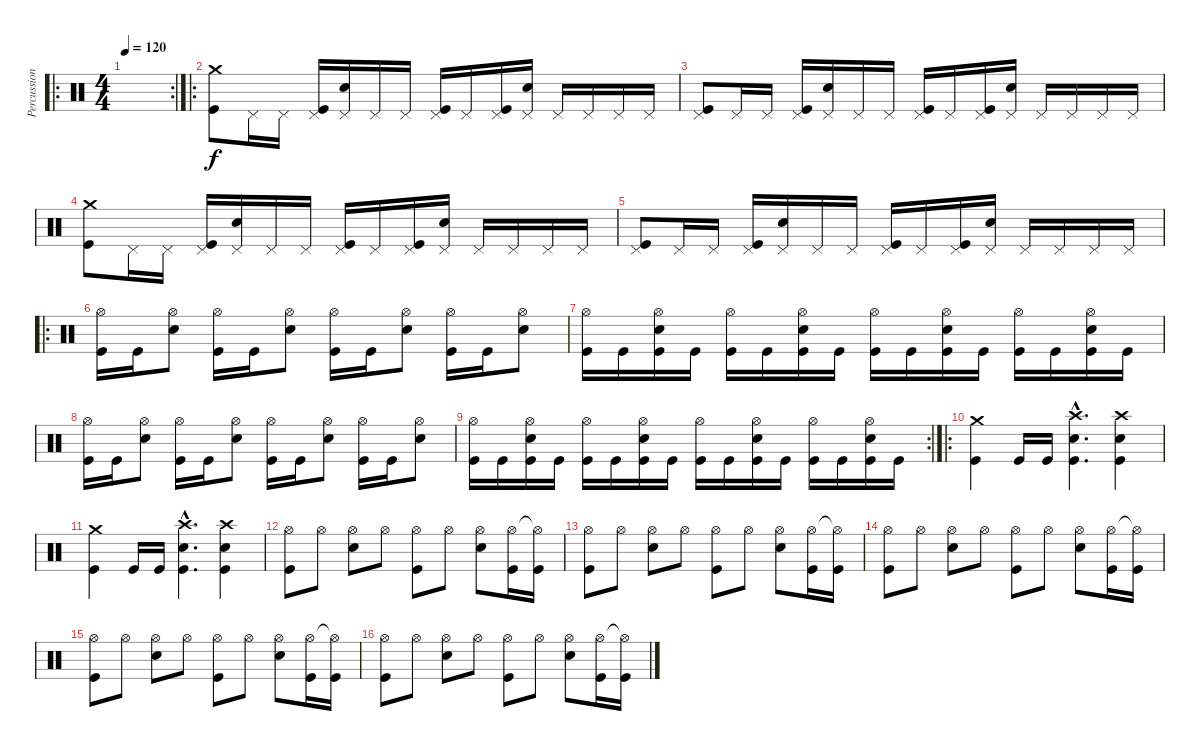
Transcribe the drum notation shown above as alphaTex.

\track ("Percussion" "Percussion") {instrument percussion}
\staff {score}
\articulation defaults
\ro
\rc 2
\ts (4 4)
\tempo 120
\clef neutral
\ks c
|
\ro
("Crash medium (hit)" "Kick (hit)").8 "Pedal Hi-Hat (hit)".16 "Pedal Hi-Hat (hit)".16 ("Pedal Hi-Hat (hit)" "Kick (hit)").16 ("Pedal Hi-Hat (hit)" "Snare (hit) 2").16 "Pedal Hi-Hat (hit)".16 "Pedal Hi-Hat (hit)".16 ("Pedal Hi-Hat (hit)" "Kick (hit)").16 "Pedal Hi-Hat (hit)".16 ("Pedal Hi-Hat (hit)" "Kick (hit)").16 ("Pedal Hi-Hat (hit)" "Snare (hit) 2").16 "Pedal Hi-Hat (hit)".16 "Pedal Hi-Hat (hit)".16 "Pedal Hi-Hat (hit)".16 "Pedal Hi-Hat (hit)".16 |
("Pedal Hi-Hat (hit)" "Kick (hit)").8 "Pedal Hi-Hat (hit)".16 "Pedal Hi-Hat (hit)".16 ("Pedal Hi-Hat (hit)" "Kick (hit)").16 ("Pedal Hi-Hat (hit)" "Snare (hit) 2").16 "Pedal Hi-Hat (hit)".16 "Pedal Hi-Hat (hit)".16 ("Pedal Hi-Hat (hit)" "Kick (hit)").16 "Pedal Hi-Hat (hit)".16 ("Pedal Hi-Hat (hit)" "Kick (hit)").16 ("Pedal Hi-Hat (hit)" "Snare (hit) 2").16 "Pedal Hi-Hat (hit)".16 "Pedal Hi-Hat (hit)".16 "Pedal Hi-Hat (hit)".16 "Pedal Hi-Hat (hit)".16 |
("Crash medium (hit)" "Kick (hit)").8 "Pedal Hi-Hat (hit)".16 "Pedal Hi-Hat (hit)".16 ("Pedal Hi-Hat (hit)" "Kick (hit)").16 ("Pedal Hi-Hat (hit)" "Snare (hit) 2").16 "Pedal Hi-Hat (hit)".16 "Pedal Hi-Hat (hit)".16 ("Pedal Hi-Hat (hit)" "Kick (hit)").16 "Pedal Hi-Hat (hit)".16 ("Pedal Hi-Hat (hit)" "Kick (hit)").16 ("Pedal Hi-Hat (hit)" "Snare (hit) 2").16 "Pedal Hi-Hat (hit)".16 "Pedal Hi-Hat (hit)".16 "Pedal Hi-Hat (hit)".16 "Pedal Hi-Hat (hit)".16 |
("Pedal Hi-Hat (hit)" "Kick (hit)").8 "Pedal Hi-Hat (hit)".16 "Pedal Hi-Hat (hit)".16 ("Pedal Hi-Hat (hit)" "Kick (hit)").16 ("Pedal Hi-Hat (hit)" "Snare (hit) 2").16 "Pedal Hi-Hat (hit)".16 "Pedal Hi-Hat (hit)".16 ("Pedal Hi-Hat (hit)" "Kick (hit)").16 "Pedal Hi-Hat (hit)".16 ("Pedal Hi-Hat (hit)" "Kick (hit)").16 ("Pedal Hi-Hat (hit)" "Snare (hit) 2").16 "Pedal Hi-Hat (hit)".16 "Pedal Hi-Hat (hit)".16 "Pedal Hi-Hat (hit)".16 "Pedal Hi-Hat (hit)".16 |
\ro
("Hi-Hat (open)" "Kick (hit)").16 "Kick (hit)".16 ("Hi-Hat (open)" "Snare (hit) 2").8 ("Hi-Hat (open)" "Kick (hit)").16 "Kick (hit)".16 ("Hi-Hat (open)" "Snare (hit) 2").8 ("Hi-Hat (open)" "Kick (hit)").16 "Kick (hit)".16 ("Hi-Hat (open)" "Snare (hit) 2").8 ("Hi-Hat (open)" "Kick (hit)").16 "Kick (hit)".16 ("Hi-Hat (open)" "Snare (hit) 2").8 |
("Hi-Hat (open)" "Kick (hit)").16 "Kick (hit)".16 ("Hi-Hat (open)" "Snare (hit) 2" "Kick (hit)").16 "Kick (hit)".16 ("Hi-Hat (open)" "Kick (hit)").16 "Kick (hit)".16 ("Hi-Hat (open)" "Snare (hit) 2" "Kick (hit)").16 "Kick (hit)".16 ("Hi-Hat (open)" "Kick (hit)").16 "Kick (hit)".16 ("Hi-Hat (open)" "Snare (hit) 2" "Kick (hit)").16 "Kick (hit)".16 ("Hi-Hat (open)" "Kick (hit)").16 "Kick (hit)".16 ("Hi-Hat (open)" "Snare (hit) 2" "Kick (hit)").16 "Kick (hit)".16 |
("Hi-Hat (open)" "Kick (hit)").16 "Kick (hit)".16 ("Hi-Hat (open)" "Snare (hit) 2").8 ("Hi-Hat (open)" "Kick (hit)").16 "Kick (hit)".16 ("Hi-Hat (open)" "Snare (hit) 2").8 ("Hi-Hat (open)" "Kick (hit)").16 "Kick (hit)".16 ("Hi-Hat (open)" "Snare (hit) 2").8 ("Hi-Hat (open)" "Kick (hit)").16 "Kick (hit)".16 ("Hi-Hat (open)" "Snare (hit) 2").8 |
\rc 2
("Hi-Hat (open)" "Kick (hit)").16 "Kick (hit)".16 ("Hi-Hat (open)" "Snare (hit) 2" "Kick (hit)").16 "Kick (hit)".16 ("Hi-Hat (open)" "Kick (hit)").16 "Kick (hit)".16 ("Hi-Hat (open)" "Snare (hit) 2" "Kick (hit)").16 "Kick (hit)".16 ("Hi-Hat (open)" "Kick (hit)").16 "Kick (hit)".16 ("Hi-Hat (open)" "Snare (hit) 2" "Kick (hit)").16 "Kick (hit)".16 ("Hi-Hat (open)" "Kick (hit)").16 "Kick (hit)".16 ("Hi-Hat (open)" "Snare (hit) 2" "Kick (hit)").16 "Kick (hit)".16 |
\ro
("Crash medium (hit)" "Kick (hit)").4 "Kick (hit)".16 "Kick (hit)".16 ("Crash high (hit)"{hac} "Snare (hit) 2"{hac} "Kick (hit)"{hac}).4{d} ("Crash high (hit)" "Snare (hit) 2" "Kick (hit)").4 |
("Crash medium (hit)" "Kick (hit)").4 "Kick (hit)".16 "Kick (hit)".16 ("Crash high (hit)"{hac} "Snare (hit) 2"{hac} "Kick (hit)"{hac}).4{d} ("Crash high (hit)" "Snare (hit) 2" "Kick (hit)").4 |
("Hi-Hat (open)" "Kick (hit)").8 "Hi-Hat (open)".8 ("Hi-Hat (open)" "Snare (hit) 2").8 "Hi-Hat (open)".8 ("Hi-Hat (open)" "Kick (hit)").8 "Hi-Hat (open)".8 ("Hi-Hat (open)" "Snare (hit) 2").8 ("Hi-Hat (open)" "Kick (hit)").16 ("Hi-Hat (open)"{t} "Kick (hit)").16 |
("Hi-Hat (open)" "Kick (hit)").8 "Hi-Hat (open)".8 ("Hi-Hat (open)" "Snare (hit) 2").8 "Hi-Hat (open)".8 ("Hi-Hat (open)" "Kick (hit)").8 "Hi-Hat (open)".8 ("Hi-Hat (open)" "Snare (hit) 2").8 ("Hi-Hat (open)" "Kick (hit)").16 ("Hi-Hat (open)"{t} "Kick (hit)").16 |
("Hi-Hat (open)" "Kick (hit)").8 "Hi-Hat (open)".8 ("Hi-Hat (open)" "Snare (hit) 2").8 "Hi-Hat (open)".8 ("Hi-Hat (open)" "Kick (hit)").8 "Hi-Hat (open)".8 ("Hi-Hat (open)" "Snare (hit) 2").8 ("Hi-Hat (open)" "Kick (hit)").16 ("Hi-Hat (open)"{t} "Kick (hit)").16 |
("Hi-Hat (open)" "Kick (hit)").8 "Hi-Hat (open)".8 ("Hi-Hat (open)" "Snare (hit) 2").8 "Hi-Hat (open)".8 ("Hi-Hat (open)" "Kick (hit)").8 "Hi-Hat (open)".8 ("Hi-Hat (open)" "Snare (hit) 2").8 ("Hi-Hat (open)" "Kick (hit)").16 ("Hi-Hat (open)"{t} "Kick (hit)").16 |
("Hi-Hat (open)" "Kick (hit)").8 "Hi-Hat (open)".8 ("Hi-Hat (open)" "Snare (hit) 2").8 "Hi-Hat (open)".8 ("Hi-Hat (open)" "Kick (hit)").8 "Hi-Hat (open)".8 ("Hi-Hat (open)" "Snare (hit) 2").8 ("Hi-Hat (open)" "Kick (hit)").16 ("Hi-Hat (open)"{t} "Kick (hit)").16
